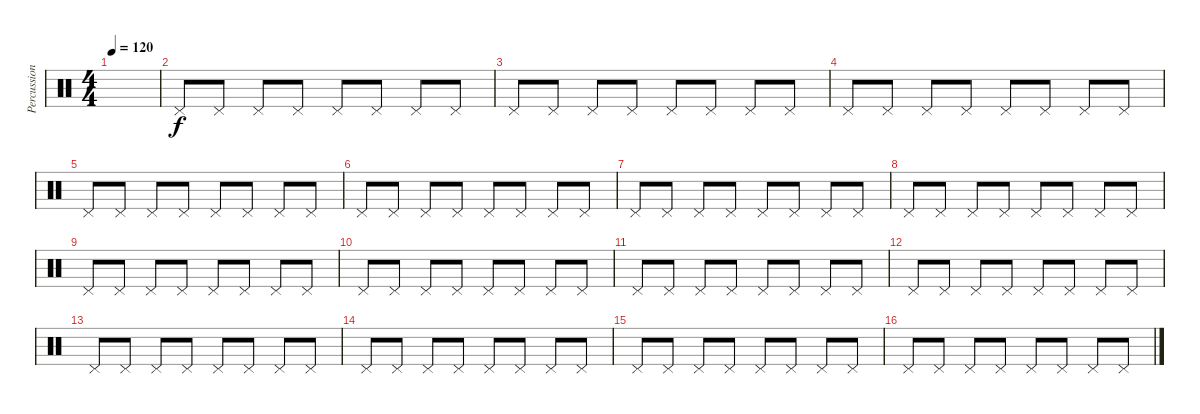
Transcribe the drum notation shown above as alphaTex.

\track ("Percussions" "Percussion") {instrument percussion}
\staff {score}
\articulation defaults
\ts (4 4)
\tempo 120
\clef neutral
\ks c
|
"Pedal Hi-Hat (hit)".8 "Pedal Hi-Hat (hit)".8 "Pedal Hi-Hat (hit)".8 "Pedal Hi-Hat (hit)".8 "Pedal Hi-Hat (hit)".8 "Pedal Hi-Hat (hit)".8 "Pedal Hi-Hat (hit)".8 "Pedal Hi-Hat (hit)".8 |
"Pedal Hi-Hat (hit)".8 "Pedal Hi-Hat (hit)".8 "Pedal Hi-Hat (hit)".8 "Pedal Hi-Hat (hit)".8 "Pedal Hi-Hat (hit)".8 "Pedal Hi-Hat (hit)".8 "Pedal Hi-Hat (hit)".8 "Pedal Hi-Hat (hit)".8 |
"Pedal Hi-Hat (hit)".8 "Pedal Hi-Hat (hit)".8 "Pedal Hi-Hat (hit)".8 "Pedal Hi-Hat (hit)".8 "Pedal Hi-Hat (hit)".8 "Pedal Hi-Hat (hit)".8 "Pedal Hi-Hat (hit)".8 "Pedal Hi-Hat (hit)".8 |
"Pedal Hi-Hat (hit)".8 "Pedal Hi-Hat (hit)".8 "Pedal Hi-Hat (hit)".8 "Pedal Hi-Hat (hit)".8 "Pedal Hi-Hat (hit)".8 "Pedal Hi-Hat (hit)".8 "Pedal Hi-Hat (hit)".8 "Pedal Hi-Hat (hit)".8 |
"Pedal Hi-Hat (hit)".8 "Pedal Hi-Hat (hit)".8 "Pedal Hi-Hat (hit)".8 "Pedal Hi-Hat (hit)".8 "Pedal Hi-Hat (hit)".8 "Pedal Hi-Hat (hit)".8 "Pedal Hi-Hat (hit)".8 "Pedal Hi-Hat (hit)".8 |
"Pedal Hi-Hat (hit)".8 "Pedal Hi-Hat (hit)".8 "Pedal Hi-Hat (hit)".8 "Pedal Hi-Hat (hit)".8 "Pedal Hi-Hat (hit)".8 "Pedal Hi-Hat (hit)".8 "Pedal Hi-Hat (hit)".8 "Pedal Hi-Hat (hit)".8 |
"Pedal Hi-Hat (hit)".8 "Pedal Hi-Hat (hit)".8 "Pedal Hi-Hat (hit)".8 "Pedal Hi-Hat (hit)".8 "Pedal Hi-Hat (hit)".8 "Pedal Hi-Hat (hit)".8 "Pedal Hi-Hat (hit)".8 "Pedal Hi-Hat (hit)".8 |
"Pedal Hi-Hat (hit)".8 "Pedal Hi-Hat (hit)".8 "Pedal Hi-Hat (hit)".8 "Pedal Hi-Hat (hit)".8 "Pedal Hi-Hat (hit)".8 "Pedal Hi-Hat (hit)".8 "Pedal Hi-Hat (hit)".8 "Pedal Hi-Hat (hit)".8 |
"Pedal Hi-Hat (hit)".8 "Pedal Hi-Hat (hit)".8 "Pedal Hi-Hat (hit)".8 "Pedal Hi-Hat (hit)".8 "Pedal Hi-Hat (hit)".8 "Pedal Hi-Hat (hit)".8 "Pedal Hi-Hat (hit)".8 "Pedal Hi-Hat (hit)".8 |
"Pedal Hi-Hat (hit)".8 "Pedal Hi-Hat (hit)".8 "Pedal Hi-Hat (hit)".8 "Pedal Hi-Hat (hit)".8 "Pedal Hi-Hat (hit)".8 "Pedal Hi-Hat (hit)".8 "Pedal Hi-Hat (hit)".8 "Pedal Hi-Hat (hit)".8 |
"Pedal Hi-Hat (hit)".8 "Pedal Hi-Hat (hit)".8 "Pedal Hi-Hat (hit)".8 "Pedal Hi-Hat (hit)".8 "Pedal Hi-Hat (hit)".8 "Pedal Hi-Hat (hit)".8 "Pedal Hi-Hat (hit)".8 "Pedal Hi-Hat (hit)".8 |
"Pedal Hi-Hat (hit)".8 "Pedal Hi-Hat (hit)".8 "Pedal Hi-Hat (hit)".8 "Pedal Hi-Hat (hit)".8 "Pedal Hi-Hat (hit)".8 "Pedal Hi-Hat (hit)".8 "Pedal Hi-Hat (hit)".8 "Pedal Hi-Hat (hit)".8 |
"Pedal Hi-Hat (hit)".8 "Pedal Hi-Hat (hit)".8 "Pedal Hi-Hat (hit)".8 "Pedal Hi-Hat (hit)".8 "Pedal Hi-Hat (hit)".8 "Pedal Hi-Hat (hit)".8 "Pedal Hi-Hat (hit)".8 "Pedal Hi-Hat (hit)".8 |
"Pedal Hi-Hat (hit)".8 "Pedal Hi-Hat (hit)".8 "Pedal Hi-Hat (hit)".8 "Pedal Hi-Hat (hit)".8 "Pedal Hi-Hat (hit)".8 "Pedal Hi-Hat (hit)".8 "Pedal Hi-Hat (hit)".8 "Pedal Hi-Hat (hit)".8 |
"Pedal Hi-Hat (hit)".8 "Pedal Hi-Hat (hit)".8 "Pedal Hi-Hat (hit)".8 "Pedal Hi-Hat (hit)".8 "Pedal Hi-Hat (hit)".8 "Pedal Hi-Hat (hit)".8 "Pedal Hi-Hat (hit)".8 "Pedal Hi-Hat (hit)".8
